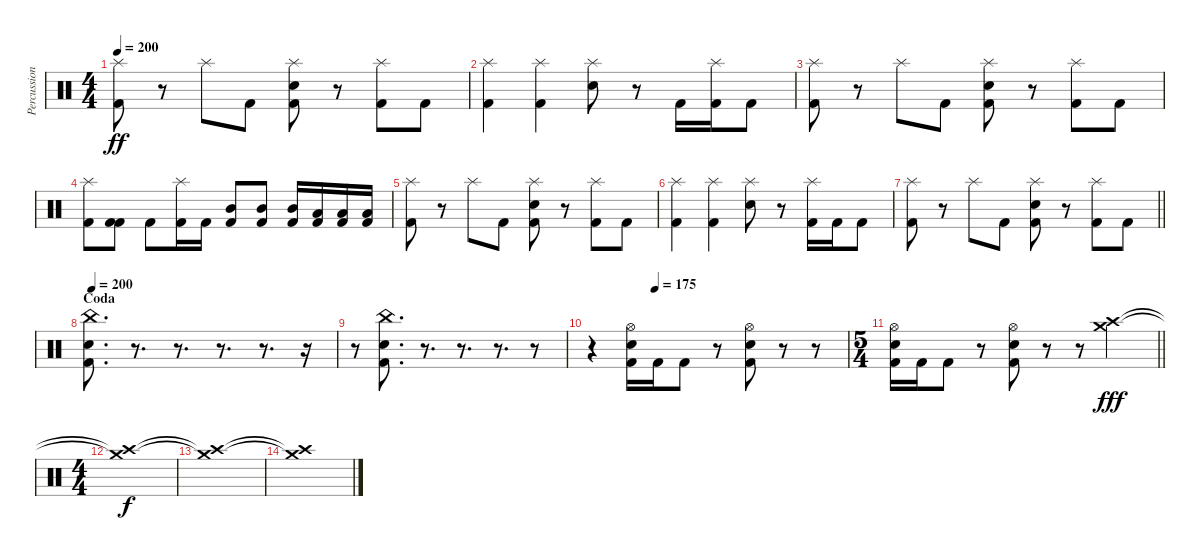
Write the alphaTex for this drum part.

\track ("Percussion" "Percussion") {instrument percussion}
\staff {score}
\articulation defaults
\ts (4 4)
\tempo 200
\clef neutral
\ks c
("Splash (hit)" "Kick (hit) 2").8{dy ff} r.8 "Splash (hit)".8 "Kick (hit) 2".8 ("Splash (hit)" "Electric Snare (hit)" "Kick (hit) 2").8 r.8 ("Splash (hit)" "Kick (hit) 2").8 "Kick (hit) 2".8 |
("Splash (hit)" "Kick (hit) 2").4 ("Splash (hit)" "Kick (hit) 2").4 ("Splash (hit)" "Electric Snare (hit)").8 r.8 "Kick (hit) 2".16 ("Splash (hit)" "Kick (hit) 2").16 "Kick (hit) 2".8 |
("Splash (hit)" "Kick (hit) 2").8 r.8 "Splash (hit)".8 "Kick (hit) 2".8 ("Splash (hit)" "Electric Snare (hit)" "Kick (hit) 2").8 r.8 ("Splash (hit)" "Kick (hit) 2").8 "Kick (hit) 2".8 |
("Splash (hit)" "Kick (hit) 2").8 ("Kick (hit) 2" "Kick (hit) 2").8 "Kick (hit) 2".8 ("Splash (hit)" "Kick (hit) 2").16 "Kick (hit) 2".16 ("Mid Tom (hit)" "Kick (hit) 2").8 ("Mid Tom (hit)" "Kick (hit) 2").8 ("Mid Tom (hit)" "Kick (hit) 2").16 ("Low Tom (hit)" "Kick (hit) 2").16 ("Low Tom (hit)" "Kick (hit) 2").16 ("Low Tom (hit)" "Kick (hit) 2").16 |
("Splash (hit)" "Kick (hit) 2").8 r.8 "Splash (hit)".8 "Kick (hit) 2".8 ("Splash (hit)" "Electric Snare (hit)" "Kick (hit) 2").8 r.8 ("Splash (hit)" "Kick (hit) 2").8 "Kick (hit) 2".8 |
("Splash (hit)" "Kick (hit) 2").4 ("Splash (hit)" "Kick (hit) 2").4 ("Splash (hit)" "Electric Snare (hit)").8 r.8 ("Splash (hit)" "Kick (hit) 2").16 "Kick (hit) 2".16 "Kick (hit) 2".8 |
\barLineRight lightlight
("Splash (hit)" "Kick (hit) 2").8 r.8 "Splash (hit)".8 "Kick (hit) 2".8 ("Splash (hit)" "Electric Snare (hit)" "Kick (hit) 2").8 r.8 ("Splash (hit)" "Kick (hit) 2").8 "Kick (hit) 2".8 |
\section ("" "Coda")
\tempo 200
("China (hit)" "Electric Snare (hit)" "Kick (hit) 2").8{d} r.8{d} r.8{d} r.8{d} r.8{d} r.16 |
r.8 ("China (hit)" "Electric Snare (hit)" "Kick (hit) 2").8{d} r.8{d} r.8{d} r.8{d} r.8 |
\tempo (175 0.25)
r.4 ("Hi-Hat (open)" "Electric Snare (hit)" "Kick (hit) 2").16 "Kick (hit) 2".16 "Kick (hit) 2".8 r.8 ("Hi-Hat (open)" "Electric Snare (hit)" "Kick (hit) 2").8 r.8 r.8 |
\ts (5 4)
\barLineRight lightlight
("Hi-Hat (open)" "Electric Snare (hit)" "Kick (hit) 2").16 "Kick (hit) 2".16 "Kick (hit) 2".8 r.8 ("Hi-Hat (open)" "Electric Snare (hit)" "Kick (hit) 2").8 r.8 r.8 ("Crash high (hit)" "Crash medium (hit)").2{dy fff} |
\ts (4 4)
("Crash high (hit)"{t} "Crash medium (hit)"{t}).1{dy f} |
("Crash high (hit)"{t} "Crash medium (hit)"{t}).1 |
("Crash high (hit)"{t} "Crash medium (hit)"{t}).1
